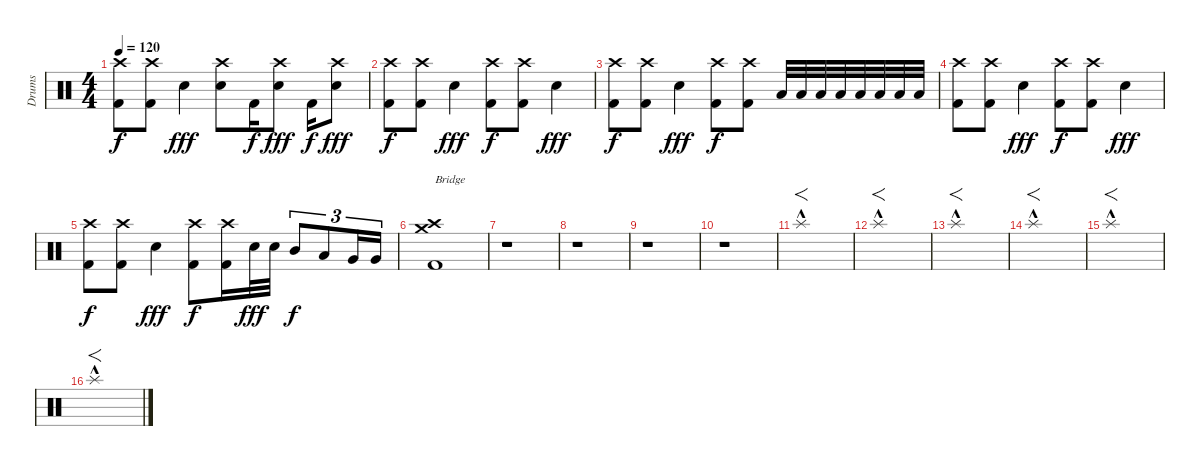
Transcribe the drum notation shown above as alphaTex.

\track ("Drums" "Drums") {instrument percussion}
\staff {score}
\articulation defaults
\ts (4 4)
\tempo 120
\clef neutral
\ks c
("Crash high (hit)" "Kick (hit) 2").8{dy f} ("Crash high (hit)" "Kick (hit) 2").8 "Snare (hit) 2".4{dy fff} ("Crash high (hit)" "Snare (hit) 2").8 "Kick (hit) 2".16{dy f} ("Crash high (hit)" "Snare (hit) 2").8{dy fff} "Kick (hit) 2".16{dy f} ("Crash high (hit)" "Snare (hit) 2").8{dy fff} |
("Crash high (hit)" "Kick (hit) 2").8{dy f} ("Crash high (hit)" "Kick (hit) 2").8 "Snare (hit) 2".4{dy fff} ("Crash high (hit)" "Kick (hit) 2").8{dy f} ("Crash high (hit)" "Kick (hit) 2").8 "Snare (hit) 2".4{dy fff} |
("Crash high (hit)" "Kick (hit) 2").8{dy f} ("Crash high (hit)" "Kick (hit) 2").8 "Snare (hit) 2".4{dy fff} ("Crash high (hit)" "Kick (hit) 2").8{dy f} ("Crash high (hit)" "Kick (hit) 2").8 "Low Tom (hit)".32 "Low Tom (hit)".32 "Low Tom (hit)".32 "Low Tom (hit)".32 "Low Floor Tom (hit)".32 "Low Floor Tom (hit)".32 "Low Floor Tom (hit)".32 "Low Floor Tom (hit)".32 |
("Crash high (hit)" "Kick (hit) 2").8 ("Crash high (hit)" "Kick (hit) 2").8 "Snare (hit) 2".4{dy fff} ("Crash high (hit)" "Kick (hit) 2").8{dy f} ("Crash high (hit)" "Kick (hit) 2").8 "Snare (hit) 2".4{dy fff} |
("Crash high (hit)" "Kick (hit) 2").8{dy f} ("Crash high (hit)" "Kick (hit) 2").8 "Snare (hit) 2".4{dy fff} ("Crash high (hit)" "Kick (hit) 2").8{dy f} ("Crash high (hit)" "Kick (hit) 2").16 "Snare (hit) 2".32{dy fff} "Snare (hit) 2".32 "Mid Tom (hit)".8{tu (3 2) dy f} "Low Tom (hit)".8{tu (3 2)} "Very Low Tom (hit)".16{tu (3 2)} "Very Low Tom (hit)".16{tu (3 2)} |
("Crash high (hit)" "Crash medium (hit)" "Kick (hit) 2").1{txt "Bridge"} |
r.1 |
r.1 |
r.1 |
r.1 |
"Splash (hit)"{hac}.1{f} |
"Splash (hit)"{hac}.1{f} |
"Splash (hit)"{hac}.1{f} |
"Splash (hit)"{hac}.1{f} |
"Splash (hit)"{hac}.1{f} |
"Splash (hit)"{hac}.1{f}
